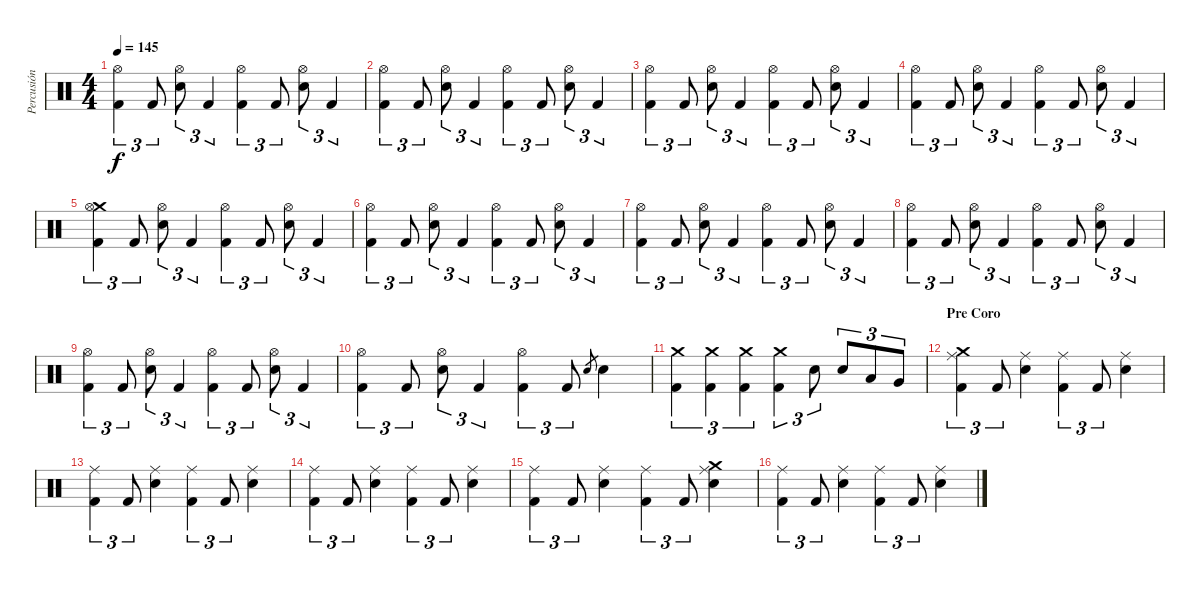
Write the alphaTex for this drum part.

\track ("Percusión" "Percusión") {instrument percussion}
\staff {score}
\articulation defaults
\ts (4 4)
\tempo 145
\clef neutral
\ks c
("Kick (hit) 2" "Hi-Hat (open)").4{tu (3 2) dy f} "Kick (hit) 2".8{tu (3 2)} ("Snare (hit) 2" "Hi-Hat (open)").8{tu (3 2)} "Kick (hit) 2".4{tu (3 2)} ("Kick (hit) 2" "Hi-Hat (open)").4{tu (3 2)} "Kick (hit) 2".8{tu (3 2)} ("Snare (hit) 2" "Hi-Hat (open)").8{tu (3 2)} "Kick (hit) 2".4{tu (3 2)} |
("Kick (hit) 2" "Hi-Hat (open)").4{tu (3 2)} "Kick (hit) 2".8{tu (3 2)} ("Snare (hit) 2" "Hi-Hat (open)").8{tu (3 2)} "Kick (hit) 2".4{tu (3 2)} ("Kick (hit) 2" "Hi-Hat (open)").4{tu (3 2)} "Kick (hit) 2".8{tu (3 2)} ("Snare (hit) 2" "Hi-Hat (open)").8{tu (3 2)} "Kick (hit) 2".4{tu (3 2)} |
("Kick (hit) 2" "Hi-Hat (open)").4{tu (3 2)} "Kick (hit) 2".8{tu (3 2)} ("Snare (hit) 2" "Hi-Hat (open)").8{tu (3 2)} "Kick (hit) 2".4{tu (3 2)} ("Kick (hit) 2" "Hi-Hat (open)").4{tu (3 2)} "Kick (hit) 2".8{tu (3 2)} ("Snare (hit) 2" "Hi-Hat (open)").8{tu (3 2)} "Kick (hit) 2".4{tu (3 2)} |
("Kick (hit) 2" "Hi-Hat (open)").4{tu (3 2)} "Kick (hit) 2".8{tu (3 2)} ("Snare (hit) 2" "Hi-Hat (open)").8{tu (3 2)} "Kick (hit) 2".4{tu (3 2)} ("Kick (hit) 2" "Hi-Hat (open)").4{tu (3 2)} "Kick (hit) 2".8{tu (3 2)} ("Snare (hit) 2" "Hi-Hat (open)").8{tu (3 2)} "Kick (hit) 2".4{tu (3 2)} |
("Kick (hit) 2" "Crash medium (hit)" "Hi-Hat (open)").4{tu (3 2)} "Kick (hit) 2".8{tu (3 2)} ("Snare (hit) 2" "Hi-Hat (open)").8{tu (3 2)} "Kick (hit) 2".4{tu (3 2)} ("Kick (hit) 2" "Hi-Hat (open)").4{tu (3 2)} "Kick (hit) 2".8{tu (3 2)} ("Snare (hit) 2" "Hi-Hat (open)").8{tu (3 2)} "Kick (hit) 2".4{tu (3 2)} |
("Kick (hit) 2" "Hi-Hat (open)").4{tu (3 2)} "Kick (hit) 2".8{tu (3 2)} ("Snare (hit) 2" "Hi-Hat (open)").8{tu (3 2)} "Kick (hit) 2".4{tu (3 2)} ("Kick (hit) 2" "Hi-Hat (open)").4{tu (3 2)} "Kick (hit) 2".8{tu (3 2)} ("Snare (hit) 2" "Hi-Hat (open)").8{tu (3 2)} "Kick (hit) 2".4{tu (3 2)} |
("Kick (hit) 2" "Hi-Hat (open)").4{tu (3 2)} "Kick (hit) 2".8{tu (3 2)} ("Snare (hit) 2" "Hi-Hat (open)").8{tu (3 2)} "Kick (hit) 2".4{tu (3 2)} ("Kick (hit) 2" "Hi-Hat (open)").4{tu (3 2)} "Kick (hit) 2".8{tu (3 2)} ("Snare (hit) 2" "Hi-Hat (open)").8{tu (3 2)} "Kick (hit) 2".4{tu (3 2)} |
("Kick (hit) 2" "Hi-Hat (open)").4{tu (3 2)} "Kick (hit) 2".8{tu (3 2)} ("Snare (hit) 2" "Hi-Hat (open)").8{tu (3 2)} "Kick (hit) 2".4{tu (3 2)} ("Kick (hit) 2" "Hi-Hat (open)").4{tu (3 2)} "Kick (hit) 2".8{tu (3 2)} ("Snare (hit) 2" "Hi-Hat (open)").8{tu (3 2)} "Kick (hit) 2".4{tu (3 2)} |
("Kick (hit) 2" "Hi-Hat (open)").4{tu (3 2)} "Kick (hit) 2".8{tu (3 2)} ("Snare (hit) 2" "Hi-Hat (open)").8{tu (3 2)} "Kick (hit) 2".4{tu (3 2)} ("Kick (hit) 2" "Hi-Hat (open)").4{tu (3 2)} "Kick (hit) 2".8{tu (3 2)} ("Snare (hit) 2" "Hi-Hat (open)").8{tu (3 2)} "Kick (hit) 2".4{tu (3 2)} |
("Kick (hit) 2" "Hi-Hat (open)").4{tu (3 2)} "Kick (hit) 2".8{tu (3 2)} ("Snare (hit) 2" "Hi-Hat (open)").8{tu (3 2)} "Kick (hit) 2".4{tu (3 2)} ("Kick (hit) 2" "Hi-Hat (open)").4{tu (3 2)} "Kick (hit) 2".8{tu (3 2)} "Snare (hit) 2".8{gr} "Snare (hit) 2".4 |
("Crash medium (hit)" "Kick (hit) 2").4{tu (3 2)} ("Crash medium (hit)" "Kick (hit) 2").4{tu (3 2)} ("Crash medium (hit)" "Kick (hit) 2").4{tu (3 2)} ("Crash medium (hit)" "Kick (hit) 2").4{tu (3 2)} "Snare (hit) 2".8{tu (3 2)} "Snare (hit) 2".8{tu (3 2)} "Low Tom (hit)".8{tu (3 2)} "Very Low Tom (hit)".8{tu (3 2)} |
\section ("" "Pre Coro")
("Kick (hit) 2" "Ride (middle)" "Crash medium (hit)").4{tu (3 2)} "Kick (hit) 2".8{tu (3 2)} ("Snare (hit) 2" "Ride (middle)").4 ("Kick (hit) 2" "Ride (middle)").4{tu (3 2)} "Kick (hit) 2".8{tu (3 2)} ("Snare (hit) 2" "Ride (middle)").4 |
("Kick (hit) 2" "Ride (middle)").4{tu (3 2)} "Kick (hit) 2".8{tu (3 2)} ("Snare (hit) 2" "Ride (middle)").4 ("Kick (hit) 2" "Ride (middle)").4{tu (3 2)} "Kick (hit) 2".8{tu (3 2)} ("Snare (hit) 2" "Ride (middle)").4 |
("Kick (hit) 2" "Ride (middle)").4{tu (3 2)} "Kick (hit) 2".8{tu (3 2)} ("Snare (hit) 2" "Ride (middle)").4 ("Kick (hit) 2" "Ride (middle)").4{tu (3 2)} "Kick (hit) 2".8{tu (3 2)} ("Snare (hit) 2" "Ride (middle)").4 |
("Kick (hit) 2" "Ride (middle)").4{tu (3 2)} "Kick (hit) 2".8{tu (3 2)} ("Snare (hit) 2" "Ride (middle)").4 ("Kick (hit) 2" "Ride (middle)").4{tu (3 2)} "Kick (hit) 2".8{tu (3 2)} ("Crash medium (hit)" "Snare (hit) 2" "Ride (middle)").4 |
("Kick (hit) 2" "Ride (middle)").4{tu (3 2)} "Kick (hit) 2".8{tu (3 2)} ("Snare (hit) 2" "Ride (middle)").4 ("Kick (hit) 2" "Ride (middle)").4{tu (3 2)} "Kick (hit) 2".8{tu (3 2)} ("Snare (hit) 2" "Ride (middle)").4
